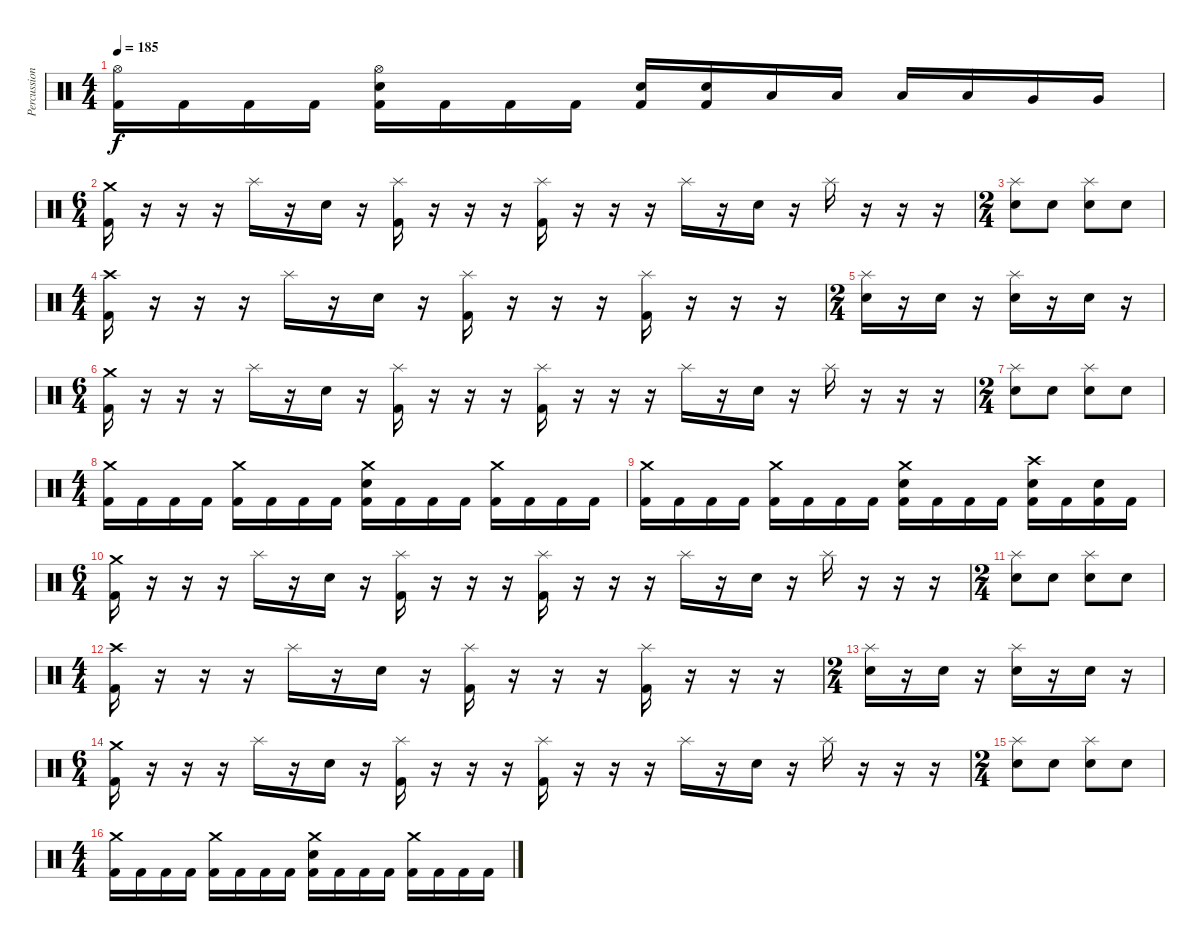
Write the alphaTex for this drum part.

\track ("Percussion" "Percussion") {instrument percussion}
\staff {score}
\articulation defaults
\ts (4 4)
\tempo 185
\clef neutral
\ks c
("Hi-Hat (open)" "Kick (hit) 2").16{dy f} "Kick (hit) 2".16 "Kick (hit) 2".16 "Kick (hit) 2".16 ("Hi-Hat (open)" "Electric Snare (hit)" "Kick (hit) 2").16 "Kick (hit) 2".16 "Kick (hit) 2".16 "Kick (hit) 2".16 ("Electric Snare (hit)" "Kick (hit) 2").16 ("Electric Snare (hit)" "Kick (hit) 2").16 "Low Tom (hit)".16 "Low Tom (hit)".16 "Low Tom (hit)".16 "Low Tom (hit)".16 "Very Low Tom (hit)".16 "Very Low Tom (hit)".16 |
\ts (6 4)
("Crash medium (hit)" "Kick (hit) 2").16 r.16 r.16 r.16 "Splash (hit)".16 r.16 "Electric Snare (hit)".16 r.16 ("Splash (hit)" "Kick (hit) 2").16 r.16 r.16 r.16 ("Splash (hit)" "Kick (hit) 2").16 r.16 r.16 r.16 "Splash (hit)".16 r.16 "Electric Snare (hit)".16 r.16 "Splash (hit)".16 r.16 r.16 r.16 |
\ts (2 4)
("Splash (hit)" "Electric Snare (hit)").8 "Electric Snare (hit)".8 ("Splash (hit)" "Electric Snare (hit)").8 "Electric Snare (hit)".8 |
\ts (4 4)
("Crash high (hit)" "Kick (hit) 2").16 r.16 r.16 r.16 "Splash (hit)".16 r.16 "Electric Snare (hit)".16 r.16 ("Splash (hit)" "Kick (hit) 2").16 r.16 r.16 r.16 ("Splash (hit)" "Kick (hit) 2").16 r.16 r.16 r.16 |
\ts (2 4)
("Splash (hit)" "Electric Snare (hit)").16 r.16 "Electric Snare (hit)".16 r.16 ("Splash (hit)" "Electric Snare (hit)").16 r.16 "Electric Snare (hit)".16 r.16 |
\ts (6 4)
("Crash medium (hit)" "Kick (hit) 2").16 r.16 r.16 r.16 "Splash (hit)".16 r.16 "Electric Snare (hit)".16 r.16 ("Splash (hit)" "Kick (hit) 2").16 r.16 r.16 r.16 ("Splash (hit)" "Kick (hit) 2").16 r.16 r.16 r.16 "Splash (hit)".16 r.16 "Electric Snare (hit)".16 r.16 "Splash (hit)".16 r.16 r.16 r.16 |
\ts (2 4)
("Splash (hit)" "Electric Snare (hit)").8 "Electric Snare (hit)".8 ("Splash (hit)" "Electric Snare (hit)").8 "Electric Snare (hit)".8 |
\ts (4 4)
("Crash medium (hit)" "Kick (hit) 2").16 "Kick (hit) 2".16 "Kick (hit) 2".16 "Kick (hit) 2".16 ("Crash medium (hit)" "Kick (hit) 2").16 "Kick (hit) 2".16 "Kick (hit) 2".16 "Kick (hit) 2".16 ("Crash medium (hit)" "Electric Snare (hit)" "Kick (hit) 2").16 "Kick (hit) 2".16 "Kick (hit) 2".16 "Kick (hit) 2".16 ("Crash medium (hit)" "Kick (hit) 2").16 "Kick (hit) 2".16 "Kick (hit) 2".16 "Kick (hit) 2".16 |
("Crash medium (hit)" "Kick (hit) 2").16 "Kick (hit) 2".16 "Kick (hit) 2".16 "Kick (hit) 2".16 ("Crash medium (hit)" "Kick (hit) 2").16 "Kick (hit) 2".16 "Kick (hit) 2".16 "Kick (hit) 2".16 ("Crash medium (hit)" "Electric Snare (hit)" "Kick (hit) 2").16 "Kick (hit) 2".16 "Kick (hit) 2".16 "Kick (hit) 2".16 ("Crash high (hit)" "Electric Snare (hit)" "Kick (hit) 2").16 "Kick (hit) 2".16 ("Electric Snare (hit)" "Kick (hit) 2").16 "Kick (hit) 2".16 |
\ts (6 4)
("Crash medium (hit)" "Kick (hit) 2").16 r.16 r.16 r.16 "Splash (hit)".16 r.16 "Electric Snare (hit)".16 r.16 ("Splash (hit)" "Kick (hit) 2").16 r.16 r.16 r.16 ("Splash (hit)" "Kick (hit) 2").16 r.16 r.16 r.16 "Splash (hit)".16 r.16 "Electric Snare (hit)".16 r.16 "Splash (hit)".16 r.16 r.16 r.16 |
\ts (2 4)
("Splash (hit)" "Electric Snare (hit)").8 "Electric Snare (hit)".8 ("Splash (hit)" "Electric Snare (hit)").8 "Electric Snare (hit)".8 |
\ts (4 4)
("Crash high (hit)" "Kick (hit) 2").16 r.16 r.16 r.16 "Splash (hit)".16 r.16 "Electric Snare (hit)".16 r.16 ("Splash (hit)" "Kick (hit) 2").16 r.16 r.16 r.16 ("Splash (hit)" "Kick (hit) 2").16 r.16 r.16 r.16 |
\ts (2 4)
("Splash (hit)" "Electric Snare (hit)").16 r.16 "Electric Snare (hit)".16 r.16 ("Splash (hit)" "Electric Snare (hit)").16 r.16 "Electric Snare (hit)".16 r.16 |
\ts (6 4)
("Crash medium (hit)" "Kick (hit) 2").16 r.16 r.16 r.16 "Splash (hit)".16 r.16 "Electric Snare (hit)".16 r.16 ("Splash (hit)" "Kick (hit) 2").16 r.16 r.16 r.16 ("Splash (hit)" "Kick (hit) 2").16 r.16 r.16 r.16 "Splash (hit)".16 r.16 "Electric Snare (hit)".16 r.16 "Splash (hit)".16 r.16 r.16 r.16 |
\ts (2 4)
("Splash (hit)" "Electric Snare (hit)").8 "Electric Snare (hit)".8 ("Splash (hit)" "Electric Snare (hit)").8 "Electric Snare (hit)".8 |
\ts (4 4)
("Crash medium (hit)" "Kick (hit) 2").16 "Kick (hit) 2".16 "Kick (hit) 2".16 "Kick (hit) 2".16 ("Crash medium (hit)" "Kick (hit) 2").16 "Kick (hit) 2".16 "Kick (hit) 2".16 "Kick (hit) 2".16 ("Crash medium (hit)" "Electric Snare (hit)" "Kick (hit) 2").16 "Kick (hit) 2".16 "Kick (hit) 2".16 "Kick (hit) 2".16 ("Crash medium (hit)" "Kick (hit) 2").16 "Kick (hit) 2".16 "Kick (hit) 2".16 "Kick (hit) 2".16
